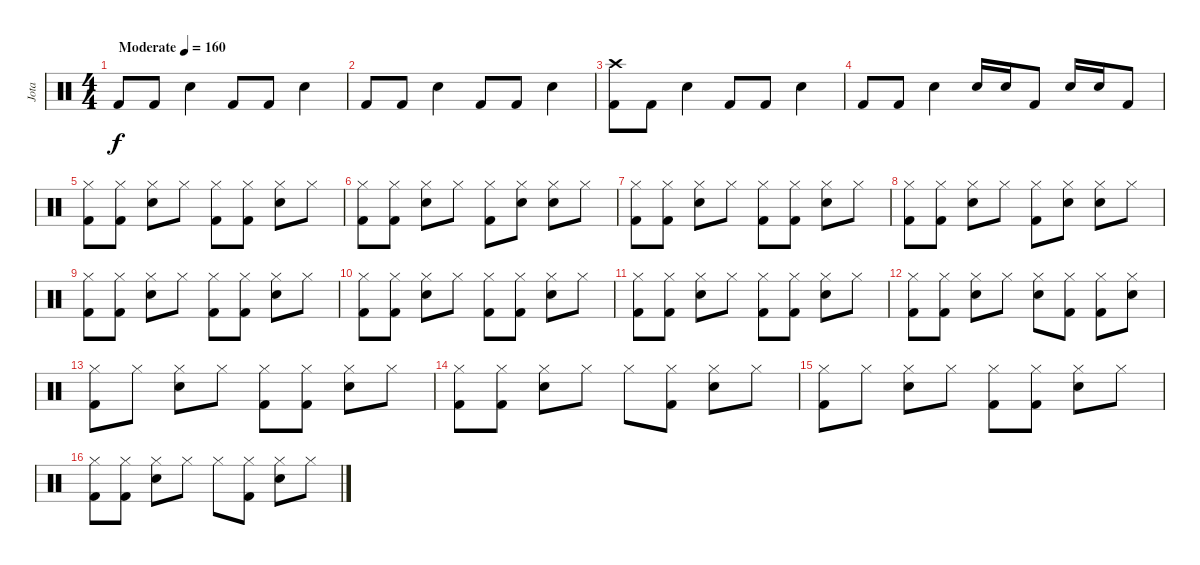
\track ("Jota" "Jota") {instrument percussion}
\staff {score}
\articulation defaults
\ts (4 4)
\tempo (160 "Moderate")
\clef neutral
\ks c "Kick (hit) 2".8{dy f} "Kick (hit) 2".8 "Electric Snare (hit)".4 "Kick (hit) 2".8 "Kick (hit) 2".8 "Electric Snare (hit)".4
|
"Kick (hit) 2".8 "Kick (hit) 2".8 "Electric Snare (hit)".4 "Kick (hit) 2".8 "Kick (hit) 2".8 "Electric Snare (hit)".4 |
("Crash high (hit)" "Kick (hit) 2").8 "Kick (hit) 2".8 "Electric Snare (hit)".4 "Kick (hit) 2".8 "Kick (hit) 2".8 "Electric Snare (hit)".4 |
"Kick (hit) 2".8 "Kick (hit) 2".8 "Electric Snare (hit)".4 "Electric Snare (hit)".16 "Electric Snare (hit)".16 "Kick (hit) 2".8 "Electric Snare (hit)".16 "Electric Snare (hit)".16 "Kick (hit) 2".8 |
("Hi-Hat (closed)" "Kick (hit) 2").8 ("Hi-Hat (closed)" "Kick (hit) 2").8 ("Hi-Hat (closed)" "Electric Snare (hit)").8 "Hi-Hat (closed)".8 ("Hi-Hat (closed)" "Kick (hit) 2").8 ("Hi-Hat (closed)" "Kick (hit) 2").8 ("Hi-Hat (closed)" "Electric Snare (hit)").8 "Hi-Hat (closed)".8 |
("Hi-Hat (closed)" "Kick (hit) 2").8 ("Hi-Hat (closed)" "Kick (hit) 2").8 ("Hi-Hat (closed)" "Electric Snare (hit)").8 "Hi-Hat (closed)".8 ("Hi-Hat (closed)" "Kick (hit) 2").8 ("Hi-Hat (closed)" "Electric Snare (hit)").8 ("Hi-Hat (closed)" "Electric Snare (hit)").8 "Hi-Hat (closed)".8 |
("Hi-Hat (closed)" "Kick (hit) 2").8 ("Hi-Hat (closed)" "Kick (hit) 2").8 ("Hi-Hat (closed)" "Electric Snare (hit)").8 "Hi-Hat (closed)".8 ("Hi-Hat (closed)" "Kick (hit) 2").8 ("Hi-Hat (closed)" "Kick (hit) 2").8 ("Hi-Hat (closed)" "Electric Snare (hit)").8 "Hi-Hat (closed)".8 |
("Hi-Hat (closed)" "Kick (hit) 2").8 ("Hi-Hat (closed)" "Kick (hit) 2").8 ("Hi-Hat (closed)" "Electric Snare (hit)").8 "Hi-Hat (closed)".8 ("Hi-Hat (closed)" "Kick (hit) 2").8 ("Hi-Hat (closed)" "Electric Snare (hit)").8 ("Hi-Hat (closed)" "Electric Snare (hit)").8 "Hi-Hat (closed)".8 |
("Hi-Hat (closed)" "Kick (hit) 2").8 ("Hi-Hat (closed)" "Kick (hit) 2").8 ("Hi-Hat (closed)" "Electric Snare (hit)").8 "Hi-Hat (closed)".8 ("Hi-Hat (closed)" "Kick (hit) 2").8 ("Hi-Hat (closed)" "Kick (hit) 2").8 ("Hi-Hat (closed)" "Electric Snare (hit)").8 "Hi-Hat (closed)".8 |
("Hi-Hat (closed)" "Kick (hit) 2").8 ("Hi-Hat (closed)" "Kick (hit) 2").8 ("Hi-Hat (closed)" "Electric Snare (hit)").8 "Hi-Hat (closed)".8 ("Hi-Hat (closed)" "Kick (hit) 2").8 ("Hi-Hat (closed)" "Kick (hit) 2").8 ("Hi-Hat (closed)" "Electric Snare (hit)").8 "Hi-Hat (closed)".8 |
("Hi-Hat (closed)" "Kick (hit) 2").8 ("Hi-Hat (closed)" "Kick (hit) 2").8 ("Hi-Hat (closed)" "Electric Snare (hit)").8 "Hi-Hat (closed)".8 ("Hi-Hat (closed)" "Kick (hit) 2").8 ("Hi-Hat (closed)" "Kick (hit) 2").8 ("Hi-Hat (closed)" "Electric Snare (hit)").8 "Hi-Hat (closed)".8 |
("Hi-Hat (closed)" "Kick (hit) 2").8 ("Hi-Hat (closed)" "Kick (hit) 2").8 ("Hi-Hat (closed)" "Electric Snare (hit)").8 "Hi-Hat (closed)".8 ("Hi-Hat (closed)" "Electric Snare (hit)").8 ("Hi-Hat (closed)" "Kick (hit) 2").8 ("Hi-Hat (closed)" "Kick (hit) 2").8 ("Hi-Hat (closed)" "Electric Snare (hit)").8 |
("Hi-Hat (closed)" "Kick (hit) 2").8 "Hi-Hat (closed)".8 ("Hi-Hat (closed)" "Electric Snare (hit)").8 "Hi-Hat (closed)".8 ("Hi-Hat (closed)" "Kick (hit) 2").8 ("Hi-Hat (closed)" "Kick (hit) 2").8 ("Hi-Hat (closed)" "Electric Snare (hit)").8 "Hi-Hat (closed)".8 |
("Hi-Hat (closed)" "Kick (hit) 2").8 ("Hi-Hat (closed)" "Kick (hit) 2").8 ("Hi-Hat (closed)" "Electric Snare (hit)").8 "Hi-Hat (closed)".8 "Hi-Hat (closed)".8 ("Hi-Hat (closed)" "Kick (hit) 2").8 ("Hi-Hat (closed)" "Electric Snare (hit)").8 "Hi-Hat (closed)".8 |
("Hi-Hat (closed)" "Kick (hit) 2").8 "Hi-Hat (closed)".8 ("Hi-Hat (closed)" "Electric Snare (hit)").8 "Hi-Hat (closed)".8 ("Hi-Hat (closed)" "Kick (hit) 2").8 ("Hi-Hat (closed)" "Kick (hit) 2").8 ("Hi-Hat (closed)" "Electric Snare (hit)").8 "Hi-Hat (closed)".8 |
("Hi-Hat (closed)" "Kick (hit) 2").8 ("Hi-Hat (closed)" "Kick (hit) 2").8 ("Hi-Hat (closed)" "Electric Snare (hit)").8 "Hi-Hat (closed)".8 "Hi-Hat (closed)".8 ("Hi-Hat (closed)" "Kick (hit) 2").8 ("Hi-Hat (closed)" "Electric Snare (hit)").8 "Hi-Hat (closed)".8
